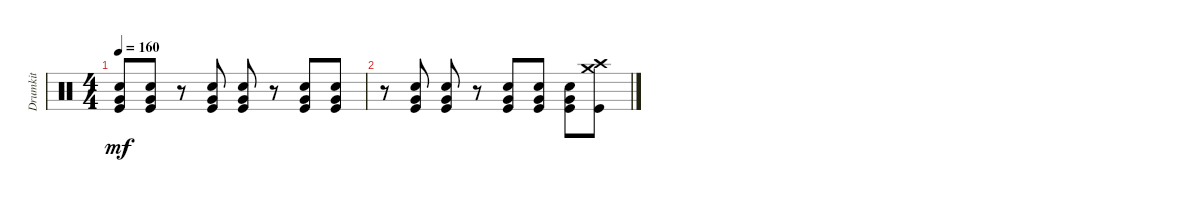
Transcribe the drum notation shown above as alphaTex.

\track ("Drumkit" "Drumkit") {instrument percussion}
\staff {score}
\articulation defaults
\ts (4 4)
\tempo 160
\clef neutral
\ks c
("Kick (hit)" "Very Low Tom (hit)" "Snare (hit) 2").8{dy mf} ("Kick (hit)" "Very Low Tom (hit)" "Snare (hit) 2").8 r.8 ("Kick (hit)" "Very Low Tom (hit)" "Snare (hit) 2").8 ("Kick (hit)" "Very Low Tom (hit)" "Snare (hit) 2").8 r.8 ("Kick (hit)" "Very Low Tom (hit)" "Snare (hit) 2").8 ("Kick (hit)" "Very Low Tom (hit)" "Snare (hit) 2").8 |
r.8 ("Kick (hit)" "Very Low Tom (hit)" "Snare (hit) 2").8 ("Kick (hit)" "Very Low Tom (hit)" "Snare (hit) 2").8 r.8 ("Kick (hit)" "Very Low Tom (hit)" "Snare (hit) 2").8 ("Kick (hit)" "Very Low Tom (hit)" "Snare (hit) 2").8 ("Kick (hit)" "Very Low Tom (hit)" "Snare (hit) 2").8 ("Kick (hit)" "Crash medium (hit)" "Crash high (hit)").8
